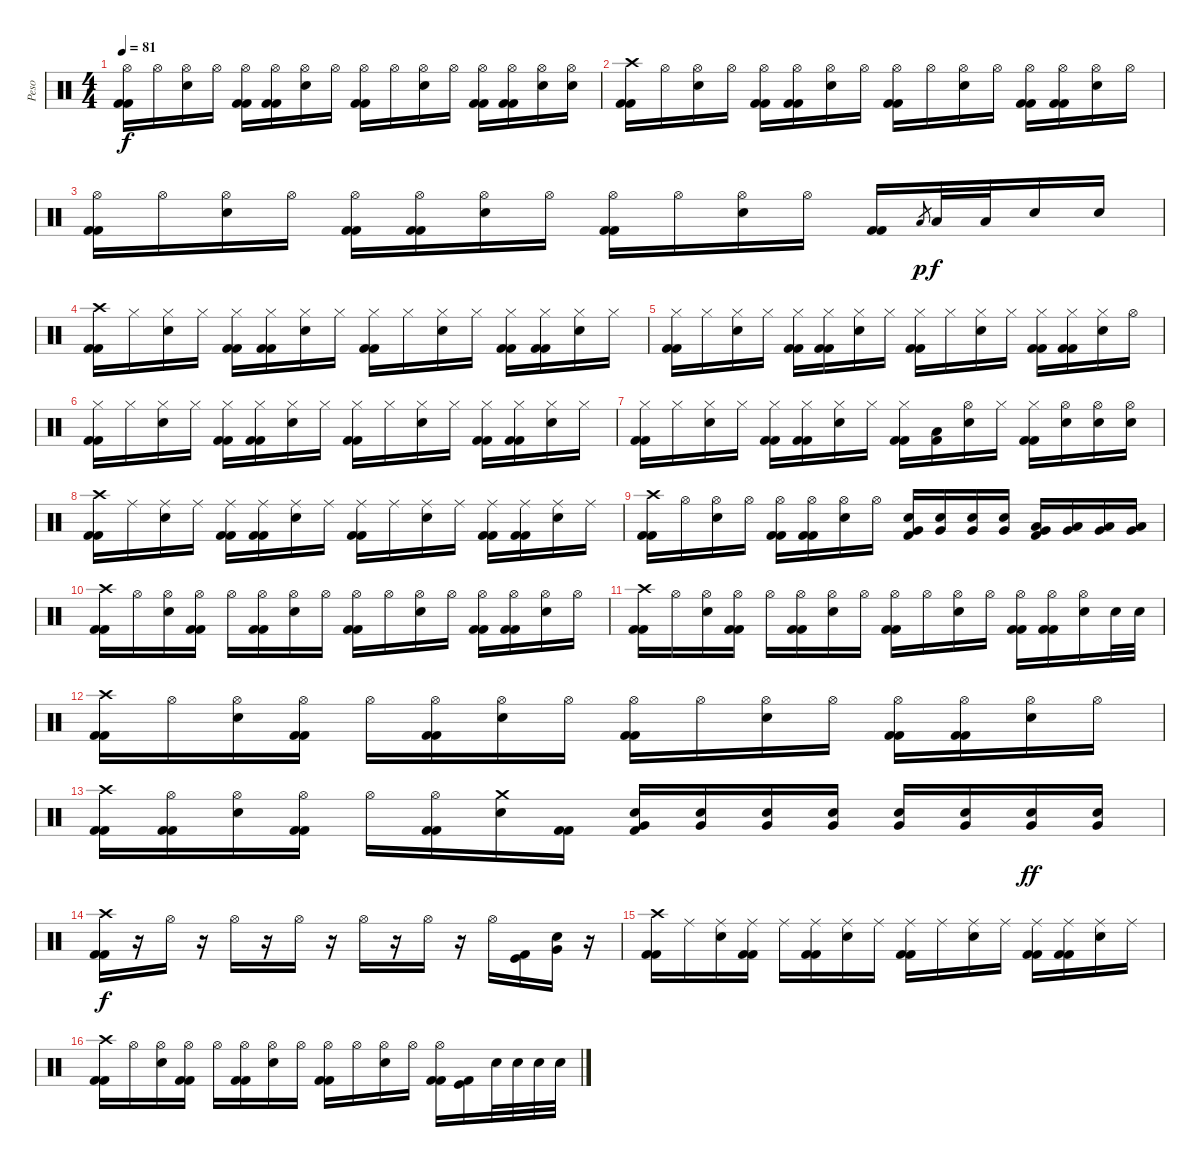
\track ("Peso" "Peso") {instrument percussion}
\staff {score}
\articulation defaults
\ts (4 4)
\tempo 81
\clef neutral
\ks c
("Hi-Hat (open)" "Kick (hit) 2" "Kick (hit) 2").16{dy f} "Hi-Hat (open)".16 ("Hi-Hat (open)" "Electric Snare (hit)").16 "Hi-Hat (open)".16 ("Hi-Hat (open)" "Kick (hit) 2" "Kick (hit) 2").16 ("Hi-Hat (open)" "Kick (hit) 2" "Kick (hit) 2").16 ("Hi-Hat (open)" "Electric Snare (hit)").16 "Hi-Hat (open)".16 ("Hi-Hat (open)" "Kick (hit) 2" "Kick (hit) 2").16 "Hi-Hat (open)".16 ("Hi-Hat (open)" "Electric Snare (hit)").16 "Hi-Hat (open)".16 ("Hi-Hat (open)" "Kick (hit) 2" "Kick (hit) 2").16 ("Hi-Hat (open)" "Kick (hit) 2" "Kick (hit) 2").16 ("Hi-Hat (open)" "Electric Snare (hit)").16 ("Hi-Hat (open)" "Electric Snare (hit)").16 |
("Crash high (hit)" "Kick (hit) 2" "Kick (hit) 2").16 "Hi-Hat (open)".16 ("Hi-Hat (open)" "Electric Snare (hit)").16 "Hi-Hat (open)".16 ("Hi-Hat (open)" "Kick (hit) 2" "Kick (hit) 2").16 ("Hi-Hat (open)" "Kick (hit) 2" "Kick (hit) 2").16 ("Hi-Hat (open)" "Electric Snare (hit)").16 "Hi-Hat (open)".16 ("Hi-Hat (open)" "Kick (hit) 2" "Kick (hit) 2").16 "Hi-Hat (open)".16 ("Hi-Hat (open)" "Electric Snare (hit)").16 "Hi-Hat (open)".16 ("Hi-Hat (open)" "Kick (hit) 2" "Kick (hit) 2").16 ("Hi-Hat (open)" "Kick (hit) 2" "Kick (hit) 2").16 ("Hi-Hat (open)" "Electric Snare (hit)").16 "Hi-Hat (open)".16 |
("Hi-Hat (open)" "Kick (hit) 2" "Kick (hit) 2").16 "Hi-Hat (open)".16 ("Hi-Hat (open)" "Electric Snare (hit)").16 "Hi-Hat (open)".16 ("Hi-Hat (open)" "Kick (hit) 2" "Kick (hit) 2").16 ("Hi-Hat (open)" "Kick (hit) 2" "Kick (hit) 2").16 ("Hi-Hat (open)" "Electric Snare (hit)").16 "Hi-Hat (open)".16 ("Hi-Hat (open)" "Kick (hit) 2" "Kick (hit) 2").16 "Hi-Hat (open)".16 ("Hi-Hat (open)" "Electric Snare (hit)").16 "Hi-Hat (open)".16 ("Kick (hit) 2" "Kick (hit) 2").16 "Low Tom (hit)".8{gr dy p} "Low Tom (hit)".32{dy f} "Low Tom (hit)".32 "Electric Snare (hit)".16 "Electric Snare (hit)".16 |
("Crash high (hit)" "Kick (hit) 2" "Kick (hit) 2").16 "Hi-Hat (closed)".16 ("Hi-Hat (closed)" "Electric Snare (hit)").16 "Hi-Hat (closed)".16 ("Hi-Hat (closed)" "Kick (hit) 2" "Kick (hit) 2").16 ("Hi-Hat (closed)" "Kick (hit) 2" "Kick (hit) 2").16 ("Hi-Hat (closed)" "Electric Snare (hit)").16 "Hi-Hat (closed)".16 ("Hi-Hat (closed)" "Kick (hit) 2" "Kick (hit) 2").16 "Hi-Hat (closed)".16 ("Hi-Hat (closed)" "Electric Snare (hit)").16 "Hi-Hat (closed)".16 ("Hi-Hat (closed)" "Kick (hit) 2" "Kick (hit) 2").16 ("Hi-Hat (closed)" "Kick (hit) 2" "Kick (hit) 2").16 ("Hi-Hat (closed)" "Electric Snare (hit)").16 "Hi-Hat (closed)".16 |
("Hi-Hat (closed)" "Kick (hit) 2" "Kick (hit) 2").16 "Hi-Hat (closed)".16 ("Hi-Hat (closed)" "Electric Snare (hit)").16 "Hi-Hat (closed)".16 ("Hi-Hat (closed)" "Kick (hit) 2" "Kick (hit) 2").16 ("Hi-Hat (closed)" "Kick (hit) 2" "Kick (hit) 2").16 ("Hi-Hat (closed)" "Electric Snare (hit)").16 "Hi-Hat (closed)".16 ("Hi-Hat (closed)" "Kick (hit) 2" "Kick (hit) 2").16 "Hi-Hat (closed)".16 ("Hi-Hat (closed)" "Electric Snare (hit)").16 "Hi-Hat (closed)".16 ("Hi-Hat (closed)" "Kick (hit) 2" "Kick (hit) 2").16 ("Hi-Hat (closed)" "Kick (hit) 2" "Kick (hit) 2").16 ("Hi-Hat (closed)" "Electric Snare (hit)").16 "Hi-Hat (open)".16 |
("Hi-Hat (closed)" "Kick (hit) 2" "Kick (hit) 2").16 "Hi-Hat (closed)".16 ("Hi-Hat (closed)" "Electric Snare (hit)").16 "Hi-Hat (closed)".16 ("Hi-Hat (closed)" "Kick (hit) 2" "Kick (hit) 2").16 ("Hi-Hat (closed)" "Kick (hit) 2" "Kick (hit) 2").16 ("Hi-Hat (closed)" "Electric Snare (hit)").16 "Hi-Hat (closed)".16 ("Hi-Hat (closed)" "Kick (hit) 2" "Kick (hit) 2").16 "Hi-Hat (closed)".16 ("Hi-Hat (closed)" "Electric Snare (hit)").16 "Hi-Hat (closed)".16 ("Hi-Hat (closed)" "Kick (hit) 2" "Kick (hit) 2").16 ("Hi-Hat (closed)" "Kick (hit) 2" "Kick (hit) 2").16 ("Hi-Hat (closed)" "Electric Snare (hit)").16 "Hi-Hat (closed)".16 |
("Hi-Hat (closed)" "Kick (hit) 2" "Kick (hit) 2").16 "Hi-Hat (closed)".16 ("Hi-Hat (closed)" "Electric Snare (hit)").16 "Hi-Hat (closed)".16 ("Hi-Hat (closed)" "Kick (hit) 2" "Kick (hit) 2").16 ("Hi-Hat (closed)" "Kick (hit) 2" "Kick (hit) 2").16 ("Hi-Hat (closed)" "Electric Snare (hit)").16 "Hi-Hat (closed)".16 ("Hi-Hat (closed)" "Kick (hit) 2" "Kick (hit) 2").16 ("Low Tom (hit)" "Kick (hit) 2").16 ("Hi-Hat (open)" "Electric Snare (hit)").16 "Hi-Hat (closed)".16 ("Hi-Hat (closed)" "Kick (hit) 2" "Kick (hit) 2").16 ("Hi-Hat (open)" "Electric Snare (hit)").16 ("Hi-Hat (open)" "Electric Snare (hit)").16 ("Hi-Hat (open)" "Electric Snare (hit)").16 |
("Crash high (hit)" "Kick (hit) 2" "Kick (hit) 2").16 "Ride (middle)".16 ("Ride (middle)" "Electric Snare (hit)").16 "Ride (middle)".16 ("Ride (middle)" "Kick (hit) 2" "Kick (hit) 2").16 ("Ride (middle)" "Kick (hit) 2" "Kick (hit) 2").16 ("Ride (middle)" "Electric Snare (hit)").16 "Ride (middle)".16 ("Ride (middle)" "Kick (hit) 2" "Kick (hit) 2").16 "Ride (middle)".16 ("Ride (middle)" "Electric Snare (hit)").16 "Ride (middle)".16 ("Ride (middle)" "Kick (hit) 2" "Kick (hit) 2").16 ("Ride (middle)" "Kick (hit) 2" "Kick (hit) 2").16 ("Ride (middle)" "Electric Snare (hit)").16 "Ride (middle)".16 |
("Crash high (hit)" "Kick (hit) 2" "Kick (hit) 2").16 "Hi-Hat (open)".16 ("Hi-Hat (open)" "Electric Snare (hit)").16 "Hi-Hat (open)".16 ("Hi-Hat (open)" "Kick (hit) 2" "Kick (hit) 2").16 ("Hi-Hat (open)" "Kick (hit) 2" "Kick (hit) 2").16 ("Hi-Hat (open)" "Electric Snare (hit)").16 "Hi-Hat (open)".16 ("Electric Snare (hit)" "Very Low Tom (hit)" "Kick (hit) 2").16 ("Electric Snare (hit)" "Very Low Tom (hit)").16 ("Electric Snare (hit)" "Very Low Tom (hit)").16 ("Electric Snare (hit)" "Very Low Tom (hit)").16 ("Low Tom (hit)" "Very Low Tom (hit)" "Kick (hit) 2").16 ("Low Tom (hit)" "Very Low Tom (hit)").16 ("Low Tom (hit)" "Very Low Tom (hit)").16 ("Low Tom (hit)" "Very Low Tom (hit)").16 |
("Crash high (hit)" "Kick (hit) 2" "Kick (hit) 2").16 "Hi-Hat (open)".16 ("Hi-Hat (open)" "Electric Snare (hit)").16 ("Hi-Hat (open)" "Kick (hit) 2" "Kick (hit) 2").16 "Hi-Hat (open)".16 ("Hi-Hat (open)" "Kick (hit) 2" "Kick (hit) 2").16 ("Hi-Hat (open)" "Electric Snare (hit)").16 "Hi-Hat (open)".16 ("Hi-Hat (open)" "Kick (hit) 2" "Kick (hit) 2").16 "Hi-Hat (open)".16 ("Hi-Hat (open)" "Electric Snare (hit)").16 "Hi-Hat (open)".16 ("Hi-Hat (open)" "Kick (hit) 2" "Kick (hit) 2").16 ("Hi-Hat (open)" "Kick (hit) 2" "Kick (hit) 2").16 ("Hi-Hat (open)" "Electric Snare (hit)").16 "Hi-Hat (open)".16 |
("Crash high (hit)" "Kick (hit) 2" "Kick (hit) 2").16 "Hi-Hat (open)".16 ("Hi-Hat (open)" "Electric Snare (hit)").16 ("Hi-Hat (open)" "Kick (hit) 2" "Kick (hit) 2").16 "Hi-Hat (open)".16 ("Hi-Hat (open)" "Kick (hit) 2" "Kick (hit) 2").16 ("Hi-Hat (open)" "Electric Snare (hit)").16 "Hi-Hat (open)".16 ("Hi-Hat (open)" "Kick (hit) 2" "Kick (hit) 2").16 "Hi-Hat (open)".16 ("Hi-Hat (open)" "Electric Snare (hit)").16 "Hi-Hat (open)".16 ("Hi-Hat (open)" "Kick (hit) 2" "Kick (hit) 2").16 ("Hi-Hat (open)" "Kick (hit) 2" "Kick (hit) 2").16 ("Hi-Hat (open)" "Electric Snare (hit)").16 "Electric Snare (hit)".32 "Electric Snare (hit)".32 |
("Crash high (hit)" "Kick (hit) 2" "Kick (hit) 2").16 "Hi-Hat (open)".16 ("Hi-Hat (open)" "Electric Snare (hit)").16 ("Hi-Hat (open)" "Kick (hit) 2" "Kick (hit) 2").16 "Hi-Hat (open)".16 ("Hi-Hat (open)" "Kick (hit) 2" "Kick (hit) 2").16 ("Hi-Hat (open)" "Electric Snare (hit)").16 "Hi-Hat (open)".16 ("Hi-Hat (open)" "Kick (hit) 2" "Kick (hit) 2").16 "Hi-Hat (open)".16 ("Hi-Hat (open)" "Electric Snare (hit)").16 "Hi-Hat (open)".16 ("Hi-Hat (open)" "Kick (hit) 2" "Kick (hit) 2").16 ("Hi-Hat (open)" "Kick (hit) 2" "Kick (hit) 2").16 ("Hi-Hat (open)" "Electric Snare (hit)").16 "Hi-Hat (open)".16 |
("Crash high (hit)" "Kick (hit) 2" "Kick (hit) 2").16 ("Hi-Hat (open)" "Kick (hit) 2" "Kick (hit) 2").16 ("Hi-Hat (open)" "Electric Snare (hit)").16 ("Hi-Hat (open)" "Kick (hit) 2" "Kick (hit) 2").16 "Hi-Hat (open)".16 ("Hi-Hat (open)" "Kick (hit) 2" "Kick (hit) 2").16 ("Crash medium (hit)" "Electric Snare (hit)").16 ("Kick (hit) 2" "Kick (hit) 2").16 ("Electric Snare (hit)" "Very Low Tom (hit)" "Kick (hit) 2").16 ("Electric Snare (hit)" "Very Low Tom (hit)").16 ("Electric Snare (hit)" "Very Low Tom (hit)").16 ("Electric Snare (hit)" "Very Low Tom (hit)").16 ("Electric Snare (hit)" "Very Low Tom (hit)").16 ("Electric Snare (hit)" "Very Low Tom (hit)").16 ("Electric Snare (hit)" "Very Low Tom (hit)").16{dy ff} ("Electric Snare (hit)" "Very Low Tom (hit)").16 |
("Crash high (hit)" "Kick (hit) 2" "Kick (hit) 2").16{dy f} r.16 "Hi-Hat (open)".16 r.16 "Hi-Hat (open)".16 r.16 "Hi-Hat (open)".16 r.16 "Hi-Hat (open)".16 r.16 "Hi-Hat (open)".16 r.16 "Hi-Hat (open)".16 ("Kick (hit)" "Kick (hit) 2").16 ("Very Low Tom (hit)" "Electric Snare (hit)").16 r.16 |
("Crash high (hit)" "Kick (hit) 2" "Kick (hit) 2").16 "Ride (middle)".16 ("Ride (middle)" "Electric Snare (hit)").16 ("Ride (middle)" "Kick (hit) 2" "Kick (hit) 2").16 "Ride (middle)".16 ("Ride (middle)" "Kick (hit) 2" "Kick (hit) 2").16 ("Ride (middle)" "Electric Snare (hit)").16 "Ride (middle)".16 ("Ride (middle)" "Kick (hit) 2" "Kick (hit) 2").16 "Ride (middle)".16 ("Ride (middle)" "Electric Snare (hit)").16 "Ride (middle)".16 ("Ride (middle)" "Kick (hit) 2" "Kick (hit) 2").16 ("Ride (middle)" "Kick (hit) 2" "Kick (hit) 2").16 ("Ride (middle)" "Electric Snare (hit)").16 "Ride (middle)".16 |
("Crash high (hit)" "Kick (hit) 2" "Kick (hit) 2").16 "Hi-Hat (open)".16 ("Hi-Hat (open)" "Electric Snare (hit)").16 ("Hi-Hat (open)" "Kick (hit) 2" "Kick (hit) 2").16 "Hi-Hat (open)".16 ("Hi-Hat (open)" "Kick (hit) 2" "Kick (hit) 2").16 ("Hi-Hat (open)" "Electric Snare (hit)").16 "Hi-Hat (open)".16 ("Hi-Hat (open)" "Kick (hit) 2" "Kick (hit) 2").16 "Hi-Hat (open)".16 ("Hi-Hat (open)" "Electric Snare (hit)").16 "Hi-Hat (open)".16 ("Hi-Hat (open)" "Kick (hit) 2" "Kick (hit) 2").16 ("Kick (hit)" "Kick (hit) 2").16 "Electric Snare (hit)".32 "Electric Snare (hit)".32 "Electric Snare (hit)".32 "Electric Snare (hit)".32
